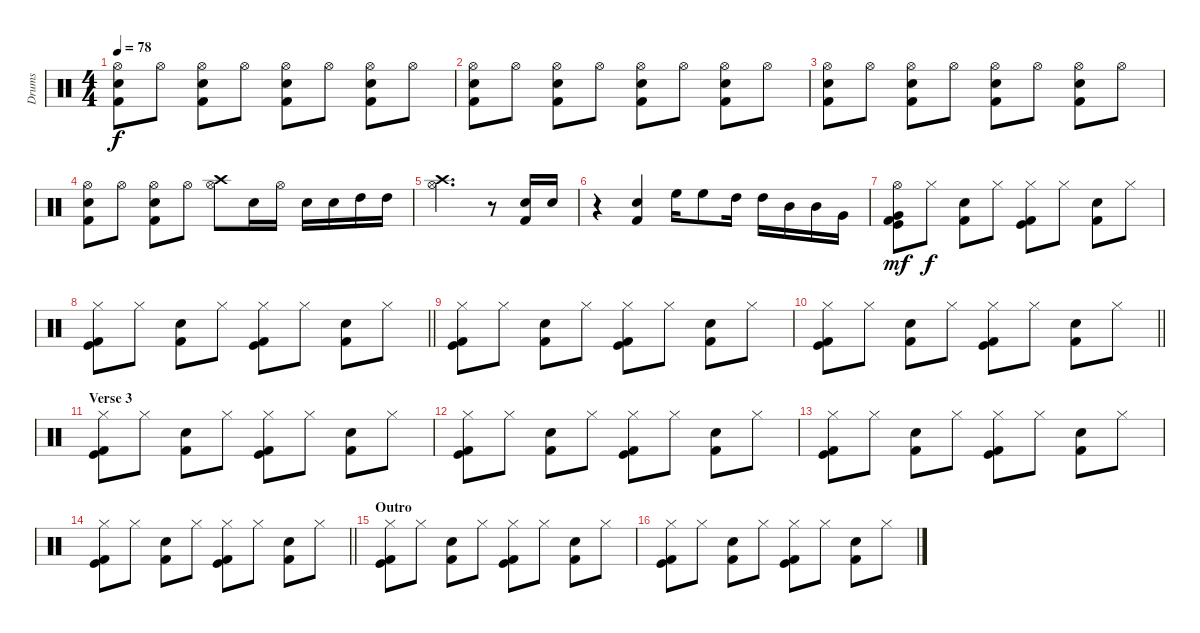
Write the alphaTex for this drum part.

\track ("Drums" "Drums") {instrument percussion}
\staff {score}
\articulation defaults
\ts (4 4)
\tempo 78
\clef neutral
\ks c
("Hi-Hat (open)" "Snare (hit) 2" "Kick (hit) 2").8{dy f} "Hi-Hat (open)".8 ("Hi-Hat (open)" "Snare (hit) 2" "Kick (hit) 2").8 "Hi-Hat (open)".8 ("Hi-Hat (open)" "Snare (hit) 2" "Kick (hit) 2").8 "Hi-Hat (open)".8 ("Hi-Hat (open)" "Snare (hit) 2" "Kick (hit) 2").8 "Hi-Hat (open)".8 |
("Hi-Hat (open)" "Snare (hit) 2" "Kick (hit) 2").8 "Hi-Hat (open)".8 ("Hi-Hat (open)" "Snare (hit) 2" "Kick (hit) 2").8 "Hi-Hat (open)".8 ("Hi-Hat (open)" "Snare (hit) 2" "Kick (hit) 2").8 "Hi-Hat (open)".8 ("Hi-Hat (open)" "Snare (hit) 2" "Kick (hit) 2").8 "Hi-Hat (open)".8 |
("Hi-Hat (open)" "Snare (hit) 2" "Kick (hit) 2").8 "Hi-Hat (open)".8 ("Hi-Hat (open)" "Snare (hit) 2" "Kick (hit) 2").8 "Hi-Hat (open)".8 ("Hi-Hat (open)" "Snare (hit) 2" "Kick (hit) 2").8 "Hi-Hat (open)".8 ("Hi-Hat (open)" "Snare (hit) 2" "Kick (hit) 2").8 "Hi-Hat (open)".8 |
("Hi-Hat (open)" "Snare (hit) 2" "Kick (hit) 2").8 "Hi-Hat (open)".8 ("Hi-Hat (open)" "Snare (hit) 2" "Kick (hit) 2").8 "Hi-Hat (open)".8 ("Crash high (hit)" "Hi-Hat (open)").8 "Snare (hit) 2".16 "Hi-Hat (open)".16 "Snare (hit) 2".16 "Snare (hit) 2".16 "High Tom (hit)".16 "High Tom (hit)".16 |
("Crash high (hit)" "Hi-Hat (open)").2{d} r.8 ("Snare (hit) 2" "Kick (hit) 2").16 "Snare (hit) 2".16 |
r.4 ("Snare (hit) 2" "Kick (hit) 2").4 "High Floor Tom (hit)".16 "High Floor Tom (hit)".8 "High Tom (hit)".16 "High Tom (hit)".16 "Mid Tom (hit)".16 "Mid Tom (hit)".16 "Very Low Tom (hit)".16 |
("Hi-Hat (open)" "Very Low Tom (hit)" "Kick (hit)" "Kick (hit) 2").8{dy mf} "Hi-Hat (closed)".8{dy f} ("Snare (hit) 2" "Kick (hit) 2").8 "Hi-Hat (closed)".8 ("Hi-Hat (closed)" "Kick (hit)" "Kick (hit) 2").8 "Hi-Hat (closed)".8 ("Snare (hit) 2" "Kick (hit) 2").8 "Hi-Hat (closed)".8 |
\barLineRight lightlight
("Hi-Hat (closed)" "Kick (hit)" "Kick (hit) 2").8 "Hi-Hat (closed)".8 ("Snare (hit) 2" "Kick (hit) 2").8 "Hi-Hat (closed)".8 ("Hi-Hat (closed)" "Kick (hit)" "Kick (hit) 2").8 "Hi-Hat (closed)".8 ("Snare (hit) 2" "Kick (hit) 2").8 "Hi-Hat (closed)".8 |
("Hi-Hat (closed)" "Kick (hit)" "Kick (hit) 2").8 "Hi-Hat (closed)".8 ("Snare (hit) 2" "Kick (hit) 2").8 "Hi-Hat (closed)".8 ("Hi-Hat (closed)" "Kick (hit)" "Kick (hit) 2").8 "Hi-Hat (closed)".8 ("Snare (hit) 2" "Kick (hit) 2").8 "Hi-Hat (closed)".8 |
\barLineRight lightlight
("Hi-Hat (closed)" "Kick (hit)" "Kick (hit) 2").8 "Hi-Hat (closed)".8 ("Snare (hit) 2" "Kick (hit) 2").8 "Hi-Hat (closed)".8 ("Hi-Hat (closed)" "Kick (hit)" "Kick (hit) 2").8 "Hi-Hat (closed)".8 ("Snare (hit) 2" "Kick (hit) 2").8 "Hi-Hat (closed)".8 |
\section ("" "Verse 3")
("Hi-Hat (closed)" "Kick (hit)" "Kick (hit) 2").8 "Hi-Hat (closed)".8 ("Snare (hit) 2" "Kick (hit) 2").8 "Hi-Hat (closed)".8 ("Hi-Hat (closed)" "Kick (hit)" "Kick (hit) 2").8 "Hi-Hat (closed)".8 ("Snare (hit) 2" "Kick (hit) 2").8 "Hi-Hat (closed)".8 |
("Hi-Hat (closed)" "Kick (hit)" "Kick (hit) 2").8 "Hi-Hat (closed)".8 ("Snare (hit) 2" "Kick (hit) 2").8 "Hi-Hat (closed)".8 ("Hi-Hat (closed)" "Kick (hit)" "Kick (hit) 2").8 "Hi-Hat (closed)".8 ("Snare (hit) 2" "Kick (hit) 2").8 "Hi-Hat (closed)".8 |
("Hi-Hat (closed)" "Kick (hit)" "Kick (hit) 2").8 "Hi-Hat (closed)".8 ("Snare (hit) 2" "Kick (hit) 2").8 "Hi-Hat (closed)".8 ("Hi-Hat (closed)" "Kick (hit)" "Kick (hit) 2").8 "Hi-Hat (closed)".8 ("Snare (hit) 2" "Kick (hit) 2").8 "Hi-Hat (closed)".8 |
\barLineRight lightlight
("Hi-Hat (closed)" "Kick (hit)" "Kick (hit) 2").8 "Hi-Hat (closed)".8 ("Snare (hit) 2" "Kick (hit) 2").8 "Hi-Hat (closed)".8 ("Hi-Hat (closed)" "Kick (hit)" "Kick (hit) 2").8 "Hi-Hat (closed)".8 ("Snare (hit) 2" "Kick (hit) 2").8 "Hi-Hat (closed)".8 |
\section ("" "Outro")
("Hi-Hat (closed)" "Kick (hit)" "Kick (hit) 2").8 "Hi-Hat (closed)".8 ("Snare (hit) 2" "Kick (hit) 2").8 "Hi-Hat (closed)".8 ("Hi-Hat (closed)" "Kick (hit)" "Kick (hit) 2").8 "Hi-Hat (closed)".8 ("Snare (hit) 2" "Kick (hit) 2").8 "Hi-Hat (closed)".8 |
("Hi-Hat (closed)" "Kick (hit)" "Kick (hit) 2").8 "Hi-Hat (closed)".8 ("Snare (hit) 2" "Kick (hit) 2").8 "Hi-Hat (closed)".8 ("Hi-Hat (closed)" "Kick (hit)" "Kick (hit) 2").8 "Hi-Hat (closed)".8 ("Snare (hit) 2" "Kick (hit) 2").8 "Hi-Hat (closed)".8
